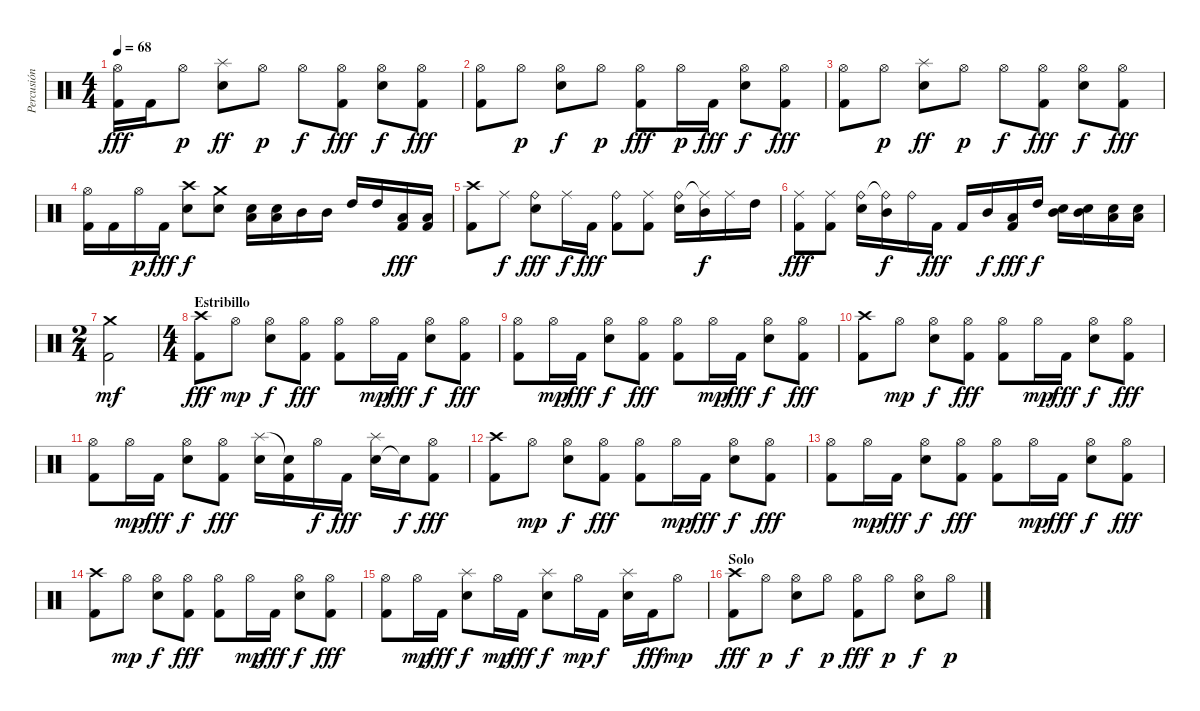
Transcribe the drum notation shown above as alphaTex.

\track ("Percusión" "Percusión") {instrument percussion}
\staff {score}
\articulation defaults
\ts (4 4)
\tempo 68
\clef neutral
\ks c
("Hi-Hat (open)" "Kick (hit) 2").16{dy fff} "Kick (hit) 2".16 "Hi-Hat (open)".8{dy p} ("Snare (hit) 2" "Splash (hit)").8{dy ff} "Hi-Hat (open)".8{dy p} "Hi-Hat (open)".8{dy f} ("Hi-Hat (open)" "Kick (hit) 2").8{dy fff} ("Hi-Hat (open)" "Snare (hit) 2").8{dy f} ("Hi-Hat (open)" "Kick (hit) 2").8{dy fff} |
("Hi-Hat (open)" "Kick (hit) 2").8 "Hi-Hat (open)".8{dy p} ("Hi-Hat (open)" "Snare (hit) 2").8{dy f} "Hi-Hat (open)".8{dy p} ("Hi-Hat (open)" "Kick (hit) 2").8{dy fff} "Hi-Hat (open)".16{dy p} "Kick (hit) 2".16{dy fff} ("Hi-Hat (open)" "Snare (hit) 2").8{dy f} ("Hi-Hat (open)" "Kick (hit) 2").8{dy fff} |
("Hi-Hat (open)" "Kick (hit) 2").8 "Hi-Hat (open)".8{dy p} ("Snare (hit) 2" "Splash (hit)").8{dy ff} "Hi-Hat (open)".8{dy p} "Hi-Hat (open)".8{dy f} ("Hi-Hat (open)" "Kick (hit) 2").8{dy fff} ("Hi-Hat (open)" "Snare (hit) 2").8{dy f} ("Hi-Hat (open)" "Kick (hit) 2").8{dy fff} |
("Hi-Hat (open)" "Kick (hit) 2").16 "Kick (hit) 2".16 "Hi-Hat (open)".16{dy p} "Kick (hit) 2".16{dy fff} ("Snare (hit) 2" "Crash high (hit)").8{dy f} ("Snare (hit) 2" "Crash medium (hit)").8 ("Snare (hit) 2" "Low Tom (hit)").16 ("Snare (hit) 2" "Low Tom (hit)").16 "Mid Tom (hit)".16 "Mid Tom (hit)".16 "High Tom (hit)".16 "High Tom (hit)".16 ("Kick (hit) 2" "Low Tom (hit)").16{dy fff} ("Kick (hit) 2" "Low Tom (hit)").16 |
("Kick (hit) 2" "Crash high (hit)").8 "Ride (middle)".8{dy f} ("Ride (bell)" "Snare (hit) 2").8{dy fff} "Ride (middle)".16{dy f} "Kick (hit) 2".16{dy fff} ("Ride (bell)" "Kick (hit) 2").8 ("Ride (middle)" "Kick (hit) 2").8 ("Ride (bell)" "Snare (hit) 2").16 ("Ride (middle)"{t} "Mid Tom (hit)").16{dy f} "Ride (middle)".16 "High Tom (hit)".16 |
("Ride (middle)" "Kick (hit) 2").8{dy fff} ("Ride (middle)" "Kick (hit) 2").8 ("Ride (bell)" "Snare (hit) 2").16 ("Ride (bell)"{t} "Mid Tom (hit)").16{dy f} "Ride (bell)".16 "Kick (hit) 2".16{dy fff} "Kick (hit) 2".16 "Mid Tom (hit)".16{dy f} ("Kick (hit) 2" "Low Tom (hit)").16{dy fff} "High Tom (hit)".16{dy f} ("Snare (hit) 2" "Mid Tom (hit)").16 ("Snare (hit) 2" "Mid Tom (hit)").16 ("Snare (hit) 2" "Low Tom (hit)").16 ("Snare (hit) 2" "Low Tom (hit)").16 |
\ts (2 4)
("Kick (hit) 2" "Crash medium (hit)").2{dy mf} |
\ts (4 4)
\section ("" "Estribillo")
("Kick (hit) 2" "Crash high (hit)").8{dy fff} "Hi-Hat (open)".8{dy mp} ("Hi-Hat (open)" "Snare (hit) 2").8{dy f} ("Hi-Hat (open)" "Kick (hit) 2").8{dy fff} ("Hi-Hat (open)" "Kick (hit) 2").8 "Hi-Hat (open)".16{dy mp} "Kick (hit) 2".16{dy fff} ("Hi-Hat (open)" "Snare (hit) 2").8{dy f} ("Hi-Hat (open)" "Kick (hit) 2").8{dy fff} |
("Hi-Hat (open)" "Kick (hit) 2").8 "Hi-Hat (open)".16{dy mp} "Kick (hit) 2".16{dy fff} ("Hi-Hat (open)" "Snare (hit) 2").8{dy f} ("Hi-Hat (open)" "Kick (hit) 2").8{dy fff} ("Hi-Hat (open)" "Kick (hit) 2").8 "Hi-Hat (open)".16{dy mp} "Kick (hit) 2".16{dy fff} ("Hi-Hat (open)" "Snare (hit) 2").8{dy f} ("Hi-Hat (open)" "Kick (hit) 2").8{dy fff} |
("Kick (hit) 2" "Crash high (hit)").8 "Hi-Hat (open)".8{dy mp} ("Hi-Hat (open)" "Snare (hit) 2").8{dy f} ("Hi-Hat (open)" "Kick (hit) 2").8{dy fff} ("Hi-Hat (open)" "Kick (hit) 2").8 "Hi-Hat (open)".16{dy mp} "Kick (hit) 2".16{dy fff} ("Hi-Hat (open)" "Snare (hit) 2").8{dy f} ("Hi-Hat (open)" "Kick (hit) 2").8{dy fff} |
("Hi-Hat (open)" "Kick (hit) 2").8 "Hi-Hat (open)".16{dy mp} "Kick (hit) 2".16{dy fff} ("Hi-Hat (open)" "Snare (hit) 2").8{dy f} ("Hi-Hat (open)" "Kick (hit) 2").8{dy fff} ("Snare (hit) 2" "Splash (hit)").16 ("Kick (hit) 2" "Snare (hit)"{t}).16 "Hi-Hat (open)".16{dy f} "Kick (hit) 2".16{dy fff} ("Snare (hit) 2" "Splash (hit)").16 "Snare (hit)"{t}.16{dy f} ("Hi-Hat (open)" "Kick (hit) 2").8{dy fff} |
("Kick (hit) 2" "Crash high (hit)").8 "Hi-Hat (open)".8{dy mp} ("Hi-Hat (open)" "Snare (hit) 2").8{dy f} ("Hi-Hat (open)" "Kick (hit) 2").8{dy fff} ("Hi-Hat (open)" "Kick (hit) 2").8 "Hi-Hat (open)".16{dy mp} "Kick (hit) 2".16{dy fff} ("Hi-Hat (open)" "Snare (hit) 2").8{dy f} ("Hi-Hat (open)" "Kick (hit) 2").8{dy fff} |
("Hi-Hat (open)" "Kick (hit) 2").8 "Hi-Hat (open)".16{dy mp} "Kick (hit) 2".16{dy fff} ("Hi-Hat (open)" "Snare (hit) 2").8{dy f} ("Hi-Hat (open)" "Kick (hit) 2").8{dy fff} ("Hi-Hat (open)" "Kick (hit) 2").8 "Hi-Hat (open)".16{dy mp} "Kick (hit) 2".16{dy fff} ("Hi-Hat (open)" "Snare (hit) 2").8{dy f} ("Hi-Hat (open)" "Kick (hit) 2").8{dy fff} |
("Kick (hit) 2" "Crash high (hit)").8 "Hi-Hat (open)".8{dy mp} ("Hi-Hat (open)" "Snare (hit) 2").8{dy f} ("Hi-Hat (open)" "Kick (hit) 2").8{dy fff} ("Hi-Hat (open)" "Kick (hit) 2").8 "Hi-Hat (open)".16{dy mp} "Kick (hit) 2".16{dy fff} ("Hi-Hat (open)" "Snare (hit) 2").8{dy f} ("Hi-Hat (open)" "Kick (hit) 2").8{dy fff} |
("Hi-Hat (open)" "Kick (hit) 2").8 "Hi-Hat (open)".16{dy mp} "Kick (hit) 2".16{dy fff} ("Snare (hit) 2" "Splash (hit)").8{dy f} "Hi-Hat (open)".16{dy mp} "Kick (hit) 2".16{dy fff} ("Snare (hit) 2" "Splash (hit)").8{dy f} "Hi-Hat (open)".16{dy mp} "Kick (hit) 2".16{dy f} ("Snare (hit) 2" "Splash (hit)").16 "Kick (hit) 2".16{dy fff} "Hi-Hat (open)".8{dy mp} |
\section ("" "Solo")
("Kick (hit) 2" "Crash high (hit)").8{dy fff} "Hi-Hat (open)".8{dy p} ("Hi-Hat (open)" "Snare (hit) 2").8{dy f} "Hi-Hat (open)".8{dy p} ("Hi-Hat (open)" "Kick (hit) 2").8{dy fff} "Hi-Hat (open)".8{dy p} ("Hi-Hat (open)" "Snare (hit) 2").8{dy f} "Hi-Hat (open)".8{dy p}
